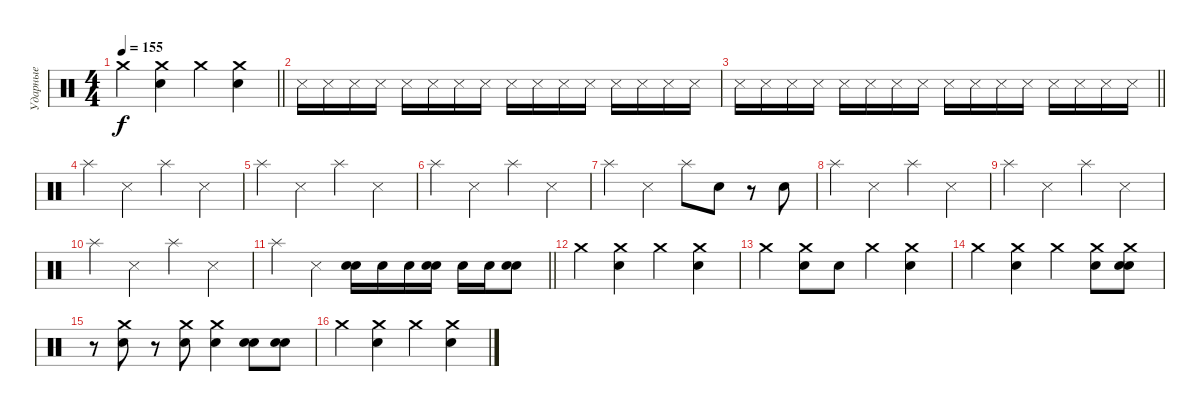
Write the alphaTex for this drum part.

\track ("Ударные" "Ударные") {instrument percussion}
\staff {score}
\articulation defaults
\ts (4 4)
\tempo 155
\clef neutral
\barLineRight lightlight
\ks c "Crash medium (hit)".4{dy f}
("Crash medium (hit)" "Electric Snare (hit)").4 "Crash medium (hit)".4 ("Crash medium (hit)" "Electric Snare (hit)").4 |
"Snare (side stick) 3".16 "Snare (side stick) 3".16 "Snare (side stick) 3".16 "Snare (side stick) 3".16 "Snare (side stick) 3".16 "Snare (side stick) 3".16 "Snare (side stick) 3".16 "Snare (side stick) 3".16 "Snare (side stick) 3".16 "Snare (side stick) 3".16 "Snare (side stick) 3".16 "Snare (side stick) 3".16 "Snare (side stick) 3".16 "Snare (side stick) 3".16 "Snare (side stick) 3".16 "Snare (side stick) 3".16 |
\barLineRight lightlight "Snare (side stick) 3".16 "Snare (side stick) 3".16 "Snare (side stick) 3".16 "Snare (side stick) 3".16 "Snare (side stick) 3".16 "Snare (side stick) 3".16 "Snare (side stick) 3".16 "Snare (side stick) 3".16 "Snare (side stick) 3".16 "Snare (side stick) 3".16 "Snare (side stick) 3".16 "Snare (side stick) 3".16 "Snare (side stick) 3".16 "Snare (side stick) 3".16 "Snare (side stick) 3".16 "Snare (side stick) 3".16
|
"Splash (hit)".4 "Snare (side stick) 3".4 "Splash (hit)".4 "Snare (side stick) 3".4 |
"Splash (hit)".4 "Snare (side stick) 3".4 "Splash (hit)".4 "Snare (side stick) 3".4 |
"Splash (hit)".4 "Snare (side stick) 3".4 "Splash (hit)".4 "Snare (side stick) 3".4 |
"Splash (hit)".4 "Snare (side stick) 3".4 "Splash (hit)".8 "Electric Snare (hit)".8 r.8 "Electric Snare (hit)".8 |
"Splash (hit)".4 "Snare (side stick) 3".4 "Splash (hit)".4 "Snare (side stick) 3".4 |
"Splash (hit)".4 "Snare (side stick) 3".4 "Splash (hit)".4 "Snare (side stick) 3".4 |
"Splash (hit)".4 "Snare (side stick) 3".4 "Splash (hit)".4 "Snare (side stick) 3".4 |
\barLineRight lightlight "Splash (hit)".4 "Snare (side stick) 3".4
("Electric Snare (hit)" "Snare (hit) 2").16 "Electric Snare (hit)".16 "Electric Snare (hit)".16 ("Electric Snare (hit)" "Snare (hit) 2").16 "Electric Snare (hit)".16 "Electric Snare (hit)".16 ("Electric Snare (hit)" "Snare (hit) 2").8 |
"Crash medium (hit)".4 ("Crash medium (hit)" "Electric Snare (hit)").4 "Crash medium (hit)".4 ("Crash medium (hit)" "Electric Snare (hit)").4 |
"Crash medium (hit)".4 ("Crash medium (hit)" "Electric Snare (hit)").8 "Electric Snare (hit)".8 "Crash medium (hit)".4 ("Crash medium (hit)" "Electric Snare (hit)").4 |
"Crash medium (hit)".4 ("Crash medium (hit)" "Electric Snare (hit)").4 "Crash medium (hit)".4 ("Crash medium (hit)" "Electric Snare (hit)").8 ("Crash medium (hit)" "Electric Snare (hit)" "Snare (hit) 2").8 |
r.8 ("Crash medium (hit)" "Electric Snare (hit)").8 r.8 ("Crash medium (hit)" "Snare (hit) 2").8 ("Crash medium (hit)" "Snare (hit) 2").4 ("Electric Snare (hit)" "Snare (hit) 2").8 ("Electric Snare (hit)" "Snare (hit) 2").8 |
"Crash medium (hit)".4 ("Crash medium (hit)" "Electric Snare (hit)").4 "Crash medium (hit)".4 ("Crash medium (hit)" "Electric Snare (hit)").4
